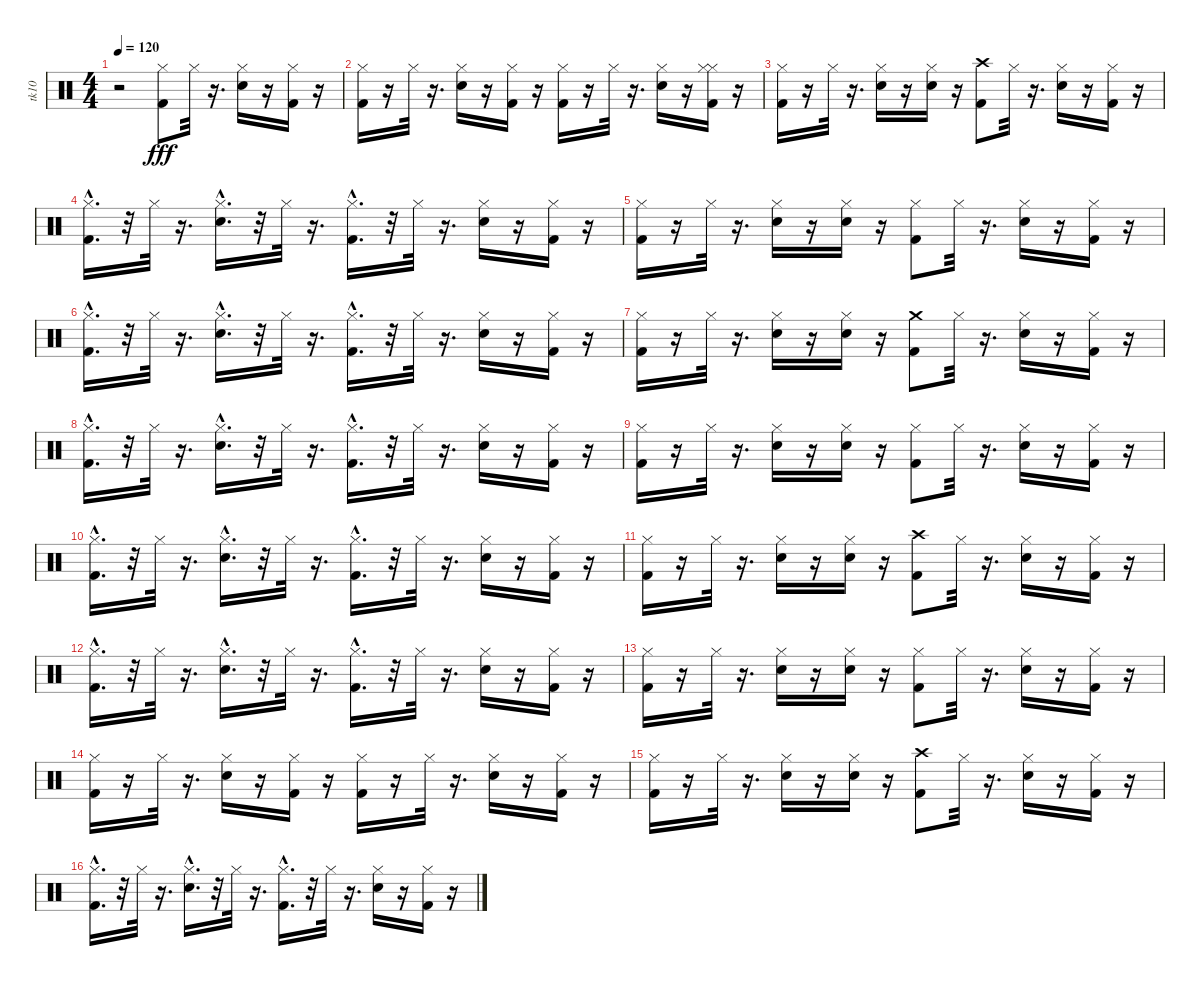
\track ("tk10" "tk10") {instrument percussion}
\staff {score}
\articulation defaults
\ts (4 4)
\tempo 120
\clef neutral
\ks c
r.2{dy fff} ("Kick (hit) 2" "Hi-Hat (closed)").8{balance 8} "Hi-Hat (closed)".32 r.16{d} ("Hi-Hat (closed)" "Snare (hit) 2").16 r.16 ("Kick (hit) 2" "Hi-Hat (closed)").16 r.16 |
("Hi-Hat (closed)" "Kick (hit) 2").16 r.16 "Hi-Hat (closed)".32 r.16{d} ("Snare (hit) 2" "Hi-Hat (closed)").16 r.16 ("Hi-Hat (closed)" "Kick (hit) 2").16 r.16 ("Kick (hit) 2" "Hi-Hat (closed)").16 r.16 "Hi-Hat (closed)".32 r.16{d} ("Hi-Hat (closed)" "Snare (hit) 2").16 r.16 ("Hi-Hat (closed)" "Kick (hit) 2" "Hi-Hat (closed)").16 r.16 |
("Kick (hit) 2" "Hi-Hat (closed)").16 r.16 "Hi-Hat (closed)".32 r.16{d} ("Hi-Hat (closed)" "Snare (hit) 2").16 r.16 ("Hi-Hat (closed)" "Snare (hit) 2").16 r.16 ("Kick (hit) 2" "Crash high (hit)").8 "Hi-Hat (closed)".32 r.16{d} ("Hi-Hat (closed)" "Snare (hit) 2").16 r.16 ("Kick (hit) 2" "Hi-Hat (closed)").16 r.16 |
("Hi-Hat (closed)" "Kick (hit) 2"{hac}).16{d} r.32 "Hi-Hat (closed)".32 r.16{d} ("Hi-Hat (closed)" "Snare (hit) 2"{hac}).16{d} r.32 "Hi-Hat (closed)".32 r.16{d} ("Kick (hit) 2"{hac} "Hi-Hat (closed)").16{d} r.32 "Hi-Hat (closed)".32 r.16{d} ("Hi-Hat (closed)" "Snare (hit) 2").16 r.16 ("Kick (hit) 2" "Hi-Hat (closed)").16 r.16 |
("Hi-Hat (closed)" "Kick (hit) 2").16 r.16 "Hi-Hat (closed)".32 r.16{d} ("Snare (hit) 2" "Hi-Hat (closed)").16 r.16 ("Hi-Hat (closed)" "Snare (hit) 2").16 r.16 ("Kick (hit) 2" "Hi-Hat (closed)").8 "Hi-Hat (closed)".32 r.16{d} ("Hi-Hat (closed)" "Snare (hit) 2").16 r.16 ("Hi-Hat (closed)" "Kick (hit) 2").16 r.16 |
("Kick (hit) 2"{hac} "Hi-Hat (closed)").16{d} r.32 "Hi-Hat (closed)".32 r.16{d} ("Snare (hit) 2"{hac} "Hi-Hat (closed)").16{d} r.32 "Hi-Hat (closed)".32 r.16{d} ("Kick (hit) 2"{hac} "Hi-Hat (closed)").16{d} r.32 "Hi-Hat (closed)".32 r.16{d} ("Hi-Hat (closed)" "Snare (hit) 2").16 r.16 ("Hi-Hat (closed)" "Kick (hit) 2").16 r.16 |
("Hi-Hat (closed)" "Kick (hit) 2").16 r.16 "Hi-Hat (closed)".32 r.16{d} ("Snare (hit) 2" "Hi-Hat (closed)").16 r.16 ("Hi-Hat (closed)" "Snare (hit) 2").16 r.16 ("Crash medium (hit)" "Kick (hit) 2").8 "Hi-Hat (closed)".32 r.16{d} ("Hi-Hat (closed)" "Snare (hit) 2").16 r.16 ("Kick (hit) 2" "Hi-Hat (closed)").16 r.16 |
("Kick (hit) 2"{hac} "Hi-Hat (closed)").16{d} r.32 "Hi-Hat (closed)".32 r.16{d} ("Hi-Hat (closed)" "Snare (hit) 2"{hac}).16{d} r.32 "Hi-Hat (closed)".32 r.16{d} ("Kick (hit) 2"{hac} "Hi-Hat (closed)").16{d} r.32 "Hi-Hat (closed)".32 r.16{d} ("Hi-Hat (closed)" "Snare (hit) 2").16 r.16 ("Kick (hit) 2" "Hi-Hat (closed)").16 r.16 |
("Kick (hit) 2" "Hi-Hat (closed)").16 r.16 "Hi-Hat (closed)".32 r.16{d} ("Hi-Hat (closed)" "Snare (hit) 2").16 r.16 ("Snare (hit) 2" "Hi-Hat (closed)").16 r.16 ("Hi-Hat (closed)" "Kick (hit) 2").8 "Hi-Hat (closed)".32 r.16{d} ("Snare (hit) 2" "Hi-Hat (closed)").16 r.16 ("Hi-Hat (closed)" "Kick (hit) 2").16 r.16 |
("Hi-Hat (closed)" "Kick (hit) 2"{hac}).16{d} r.32 "Hi-Hat (closed)".32 r.16{d} ("Hi-Hat (closed)" "Snare (hit) 2"{hac}).16{d} r.32 "Hi-Hat (closed)".32 r.16{d} ("Hi-Hat (closed)" "Kick (hit) 2"{hac}).16{d} r.32 "Hi-Hat (closed)".32 r.16{d} ("Snare (hit) 2" "Hi-Hat (closed)").16 r.16 ("Kick (hit) 2" "Hi-Hat (closed)").16 r.16 |
("Hi-Hat (closed)" "Kick (hit) 2").16 r.16 "Hi-Hat (closed)".32 r.16{d} ("Hi-Hat (closed)" "Snare (hit) 2").16 r.16 ("Snare (hit) 2" "Hi-Hat (closed)").16 r.16 ("Crash high (hit)" "Kick (hit) 2").8 "Hi-Hat (closed)".32 r.16{d} ("Hi-Hat (closed)" "Snare (hit) 2").16 r.16 ("Kick (hit) 2" "Hi-Hat (closed)").16 r.16 |
("Hi-Hat (closed)" "Kick (hit) 2"{hac}).16{d} r.32 "Hi-Hat (closed)".32 r.16{d} ("Hi-Hat (closed)" "Snare (hit) 2"{hac}).16{d} r.32 "Hi-Hat (closed)".32 r.16{d} ("Kick (hit) 2"{hac} "Hi-Hat (closed)").16{d} r.32 "Hi-Hat (closed)".32 r.16{d} ("Snare (hit) 2" "Hi-Hat (closed)").16 r.16 ("Hi-Hat (closed)" "Kick (hit) 2").16 r.16 |
("Kick (hit) 2" "Hi-Hat (closed)").16 r.16 "Hi-Hat (closed)".32 r.16{d} ("Hi-Hat (closed)" "Snare (hit) 2").16 r.16 ("Snare (hit) 2" "Hi-Hat (closed)").16 r.16 ("Kick (hit) 2" "Hi-Hat (closed)").8 "Hi-Hat (closed)".32 r.16{d} ("Snare (hit) 2" "Hi-Hat (closed)").16 r.16 ("Hi-Hat (closed)" "Kick (hit) 2").16 r.16 |
("Hi-Hat (closed)" "Kick (hit) 2").16 r.16 "Hi-Hat (closed)".32 r.16{d} ("Hi-Hat (closed)" "Snare (hit) 2").16 r.16 ("Kick (hit) 2" "Hi-Hat (closed)").16 r.16 ("Hi-Hat (closed)" "Kick (hit) 2").16 r.16 "Hi-Hat (closed)".32 r.16{d} ("Snare (hit) 2" "Hi-Hat (closed)").16 r.16 ("Hi-Hat (closed)" "Kick (hit) 2").16 r.16 |
("Hi-Hat (closed)" "Kick (hit) 2").16 r.16 "Hi-Hat (closed)".32 r.16{d} ("Snare (hit) 2" "Hi-Hat (closed)").16 r.16 ("Snare (hit) 2" "Hi-Hat (closed)").16 r.16 ("Kick (hit) 2" "Crash high (hit)").8 "Hi-Hat (closed)".32 r.16{d} ("Hi-Hat (closed)" "Snare (hit) 2").16 r.16 ("Hi-Hat (closed)" "Kick (hit) 2").16 r.16 |
("Kick (hit) 2"{hac} "Hi-Hat (closed)").16{d} r.32 "Hi-Hat (closed)".32 r.16{d} ("Snare (hit) 2"{hac} "Hi-Hat (closed)").16{d} r.32 "Hi-Hat (closed)".32 r.16{d} ("Hi-Hat (closed)" "Kick (hit) 2"{hac}).16{d} r.32 "Hi-Hat (closed)".32 r.16{d} ("Snare (hit) 2" "Hi-Hat (closed)").16 r.16 ("Kick (hit) 2" "Hi-Hat (closed)").16 r.16
